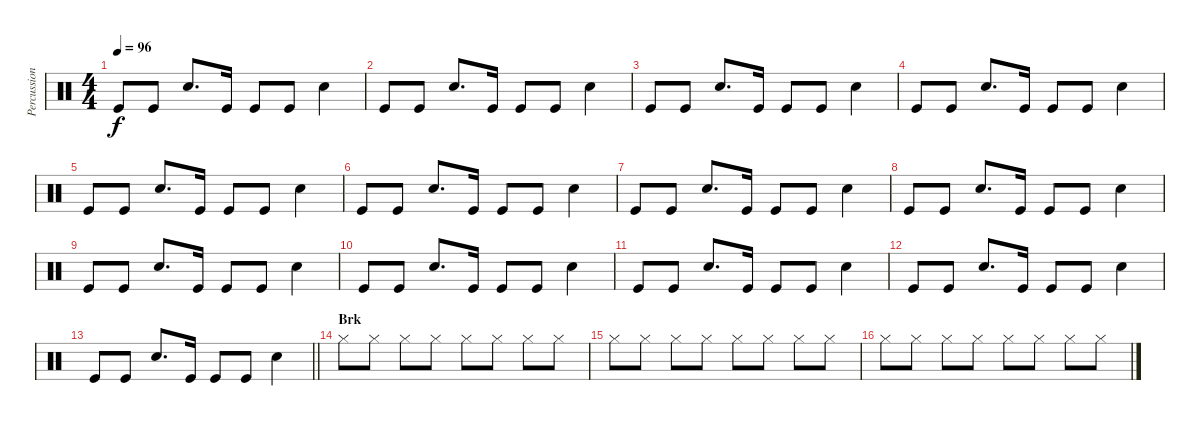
\track ("Percussion" "Percussion") {instrument percussion}
\staff {score}
\articulation defaults
\ts (4 4)
\tempo 96
\clef neutral
\ks c "Kick (hit)".8{dy f} "Kick (hit)".8 "Electric Snare (hit)".8{d} "Kick (hit)".16 "Kick (hit)".8 "Kick (hit)".8 "Electric Snare (hit)".4
|
"Kick (hit)".8 "Kick (hit)".8 "Electric Snare (hit)".8{d} "Kick (hit)".16 "Kick (hit)".8 "Kick (hit)".8 "Electric Snare (hit)".4 |
"Kick (hit)".8 "Kick (hit)".8 "Electric Snare (hit)".8{d} "Kick (hit)".16 "Kick (hit)".8 "Kick (hit)".8 "Electric Snare (hit)".4 |
"Kick (hit)".8 "Kick (hit)".8 "Electric Snare (hit)".8{d} "Kick (hit)".16 "Kick (hit)".8 "Kick (hit)".8 "Electric Snare (hit)".4 |
"Kick (hit)".8 "Kick (hit)".8 "Electric Snare (hit)".8{d} "Kick (hit)".16 "Kick (hit)".8 "Kick (hit)".8 "Electric Snare (hit)".4 |
"Kick (hit)".8 "Kick (hit)".8 "Electric Snare (hit)".8{d} "Kick (hit)".16 "Kick (hit)".8 "Kick (hit)".8 "Electric Snare (hit)".4 |
"Kick (hit)".8 "Kick (hit)".8 "Electric Snare (hit)".8{d} "Kick (hit)".16 "Kick (hit)".8 "Kick (hit)".8 "Electric Snare (hit)".4 |
"Kick (hit)".8 "Kick (hit)".8 "Electric Snare (hit)".8{d} "Kick (hit)".16 "Kick (hit)".8 "Kick (hit)".8 "Electric Snare (hit)".4 |
"Kick (hit)".8 "Kick (hit)".8 "Electric Snare (hit)".8{d} "Kick (hit)".16 "Kick (hit)".8 "Kick (hit)".8 "Electric Snare (hit)".4 |
"Kick (hit)".8 "Kick (hit)".8 "Electric Snare (hit)".8{d} "Kick (hit)".16 "Kick (hit)".8 "Kick (hit)".8 "Electric Snare (hit)".4 |
"Kick (hit)".8 "Kick (hit)".8 "Electric Snare (hit)".8{d} "Kick (hit)".16 "Kick (hit)".8 "Kick (hit)".8 "Electric Snare (hit)".4 |
"Kick (hit)".8 "Kick (hit)".8 "Electric Snare (hit)".8{d} "Kick (hit)".16 "Kick (hit)".8 "Kick (hit)".8 "Electric Snare (hit)".4 |
\barLineRight lightlight "Kick (hit)".8 "Kick (hit)".8 "Electric Snare (hit)".8{d} "Kick (hit)".16 "Kick (hit)".8 "Kick (hit)".8 "Electric Snare (hit)".4
|
\section ("" "Brk")
"Hi-Hat (closed)".8 "Hi-Hat (closed)".8 "Hi-Hat (closed)".8 "Hi-Hat (closed)".8 "Hi-Hat (closed)".8 "Hi-Hat (closed)".8 "Hi-Hat (closed)".8 "Hi-Hat (closed)".8 |
"Hi-Hat (closed)".8 "Hi-Hat (closed)".8 "Hi-Hat (closed)".8 "Hi-Hat (closed)".8 "Hi-Hat (closed)".8 "Hi-Hat (closed)".8 "Hi-Hat (closed)".8 "Hi-Hat (closed)".8 |
"Hi-Hat (closed)".8 "Hi-Hat (closed)".8 "Hi-Hat (closed)".8 "Hi-Hat (closed)".8 "Hi-Hat (closed)".8 "Hi-Hat (closed)".8 "Hi-Hat (closed)".8 "Hi-Hat (closed)".8
